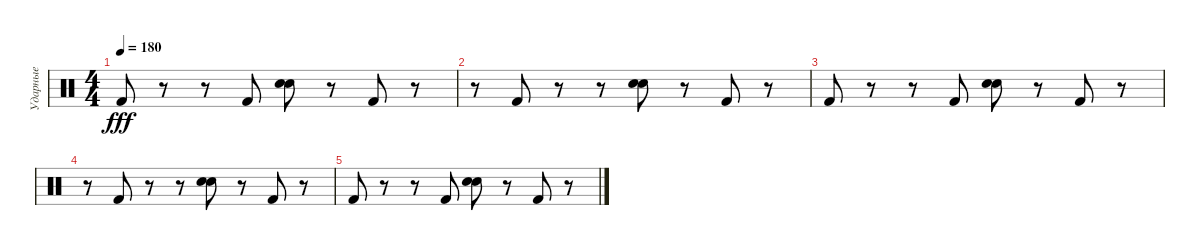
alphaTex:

\track ("Ударные" "Ударные") {instrument percussion}
\staff {score}
\articulation defaults
\ts (4 4)
\tempo 180
\clef neutral
\ks c "Kick (hit) 2".8{dy fff}
r.8 r.8 "Kick (hit) 2".8 ("Snare (hit) 2" "Electric Snare (hit)").8 r.8 "Kick (hit) 2".8 r.8 |
r.8 "Kick (hit) 2".8 r.8 r.8 ("Snare (hit) 2" "Electric Snare (hit)").8 r.8 "Kick (hit) 2".8 r.8 |
"Kick (hit) 2".8 r.8 r.8 "Kick (hit) 2".8 ("Snare (hit) 2" "Electric Snare (hit)").8 r.8 "Kick (hit) 2".8 r.8 |
r.8 "Kick (hit) 2".8 r.8 r.8 ("Snare (hit) 2" "Electric Snare (hit)").8 r.8 "Kick (hit) 2".8 r.8 |
"Kick (hit) 2".8 r.8 r.8 "Kick (hit) 2".8 ("Snare (hit) 2" "Electric Snare (hit)").8 r.8 "Kick (hit) 2".8 r.8
